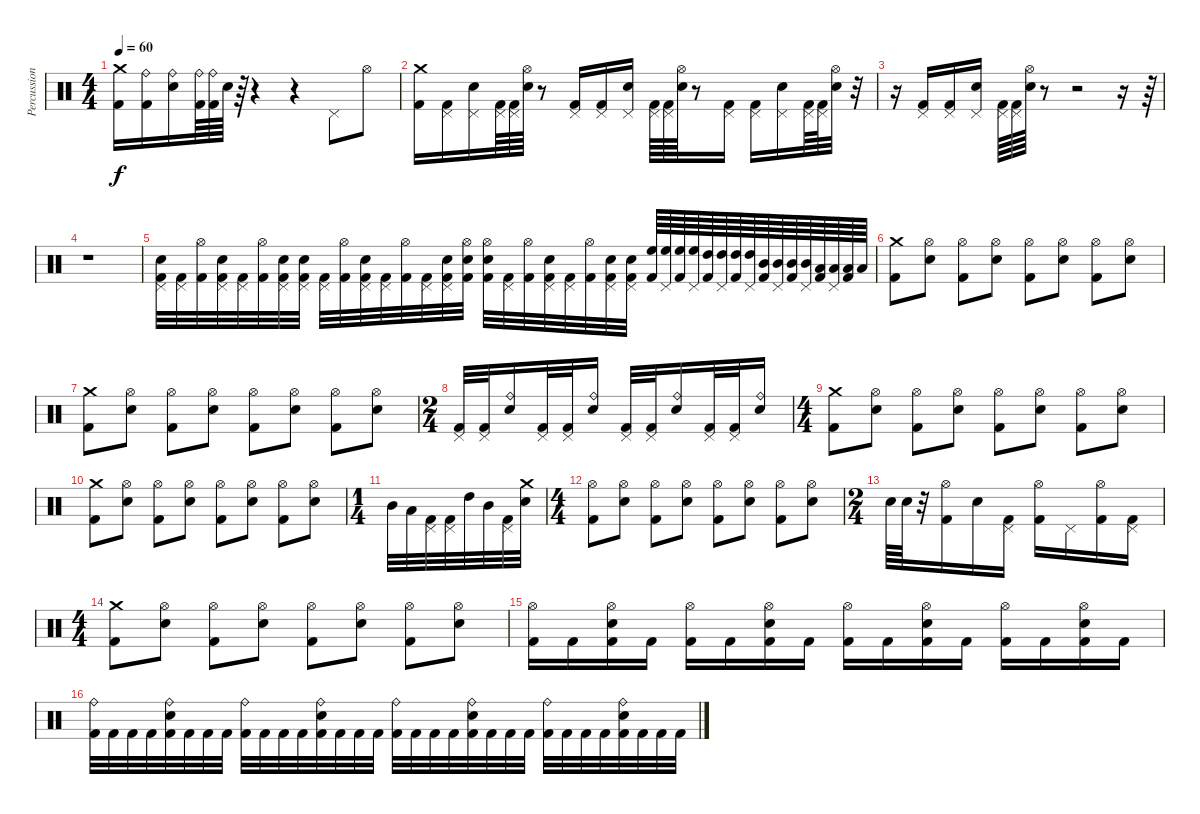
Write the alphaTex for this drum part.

\track ("Percussions" "Percussion") {instrument percussion}
\staff {score}
\articulation defaults
\ts (4 4)
\tempo 60
\clef neutral
\ks c
("Crash medium (hit)" "Kick (hit) 2").16{dy f} ("Ride (bell)" "Kick (hit) 2").16 ("Ride (bell)" "Electric Snare (hit)").16 ("Ride (bell)" "Kick (hit) 2").64 ("Ride (bell)" "Kick (hit) 2").64 "Electric Snare (hit)".64 r.64 r.4 r.4 "Pedal Hi-Hat (hit)".8 "Hi-Hat (open)".8 |
("Crash medium (hit)" "Kick (hit) 2").16 ("Pedal Hi-Hat (hit)" "Kick (hit) 2").16 ("Pedal Hi-Hat (hit)" "Electric Snare (hit)").16 ("Pedal Hi-Hat (hit)" "Kick (hit) 2").64 ("Pedal Hi-Hat (hit)" "Kick (hit) 2").64 ("Hi-Hat (open)" "Electric Snare (hit)").64 r.8 ("Pedal Hi-Hat (hit)" "Kick (hit) 2").16 ("Pedal Hi-Hat (hit)" "Kick (hit) 2").16 ("Pedal Hi-Hat (hit)" "Electric Snare (hit)").16 ("Pedal Hi-Hat (hit)" "Kick (hit) 2").64 ("Pedal Hi-Hat (hit)" "Kick (hit) 2").64 ("Hi-Hat (open)" "Electric Snare (hit)").64 r.8 ("Pedal Hi-Hat (hit)" "Kick (hit) 2").16 ("Pedal Hi-Hat (hit)" "Kick (hit) 2").16 ("Pedal Hi-Hat (hit)" "Electric Snare (hit)").16 ("Pedal Hi-Hat (hit)" "Kick (hit) 2").64 ("Pedal Hi-Hat (hit)" "Kick (hit) 2").64 ("Hi-Hat (open)" "Electric Snare (hit)").32 r.32 |
r.16 ("Pedal Hi-Hat (hit)" "Kick (hit) 2").16 ("Pedal Hi-Hat (hit)" "Kick (hit) 2").16 ("Pedal Hi-Hat (hit)" "Electric Snare (hit)").16 ("Pedal Hi-Hat (hit)" "Kick (hit) 2").64 ("Pedal Hi-Hat (hit)" "Kick (hit) 2").64 ("Hi-Hat (open)" "Electric Snare (hit)").64 r.8 r.2 r.16 r.64 |
r.1 |
("Pedal Hi-Hat (hit)" "Electric Snare (hit)" "Kick (hit) 2").32 ("Pedal Hi-Hat (hit)" "Kick (hit) 2").32 ("Hi-Hat (open)" "Kick (hit) 2").32 ("Pedal Hi-Hat (hit)" "Electric Snare (hit)" "Kick (hit) 2").32 ("Pedal Hi-Hat (hit)" "Kick (hit) 2").32 ("Hi-Hat (open)" "Kick (hit) 2").32 ("Pedal Hi-Hat (hit)" "Electric Snare (hit)" "Kick (hit) 2").32 ("Pedal Hi-Hat (hit)" "Electric Snare (hit)" "Kick (hit) 2").32 ("Pedal Hi-Hat (hit)" "Kick (hit) 2").32 ("Hi-Hat (open)" "Kick (hit) 2").32 ("Pedal Hi-Hat (hit)" "Electric Snare (hit)" "Kick (hit) 2").32 ("Pedal Hi-Hat (hit)" "Kick (hit) 2").32 ("Hi-Hat (open)" "Kick (hit) 2").32 ("Pedal Hi-Hat (hit)" "Kick (hit) 2").32 ("Pedal Hi-Hat (hit)" "Electric Snare (hit)" "Kick (hit) 2").32 ("Hi-Hat (open)" "Electric Snare (hit)" "Kick (hit) 2").32 ("Hi-Hat (open)" "Electric Snare (hit)" "Kick (hit) 2").32 ("Pedal Hi-Hat (hit)" "Kick (hit) 2").32 ("Hi-Hat (open)" "Kick (hit) 2").32 ("Pedal Hi-Hat (hit)" "Electric Snare (hit)" "Kick (hit) 2").32 ("Pedal Hi-Hat (hit)" "Kick (hit) 2").32 ("Hi-Hat (open)" "Kick (hit) 2").32 ("Pedal Hi-Hat (hit)" "Electric Snare (hit)" "Kick (hit) 2").32 ("Pedal Hi-Hat (hit)" "Electric Snare (hit)" "Kick (hit) 2").32 ("High Floor Tom (hit)" "Kick (hit) 2").64 ("Pedal Hi-Hat (hit)" "High Floor Tom (hit)").64 ("High Floor Tom (hit)" "Kick (hit) 2").64 ("Pedal Hi-Hat (hit)" "High Floor Tom (hit)").64 ("High Tom (hit)" "Kick (hit) 2").64 ("Pedal Hi-Hat (hit)" "High Tom (hit)").64 ("High Tom (hit)" "Kick (hit) 2").64 ("Pedal Hi-Hat (hit)" "High Tom (hit)").64 ("Mid Tom (hit)" "Kick (hit) 2").64 ("Pedal Hi-Hat (hit)" "Mid Tom (hit)").64 ("Mid Tom (hit)" "Kick (hit) 2").64 ("Pedal Hi-Hat (hit)" "Mid Tom (hit)").64 ("Low Tom (hit)" "Kick (hit) 2").64 ("Pedal Hi-Hat (hit)" "Low Tom (hit)").64 ("Low Tom (hit)" "Kick (hit) 2").64 "Low Tom (hit)".64 |
("Crash medium (hit)" "Kick (hit) 2").8 ("Hi-Hat (open)" "Electric Snare (hit)").8 ("Hi-Hat (open)" "Kick (hit) 2").8 ("Hi-Hat (open)" "Electric Snare (hit)").8 ("Hi-Hat (open)" "Kick (hit) 2").8 ("Hi-Hat (open)" "Electric Snare (hit)").8 ("Hi-Hat (open)" "Kick (hit) 2").8 ("Hi-Hat (open)" "Electric Snare (hit)").8 |
("Crash medium (hit)" "Kick (hit) 2").8 ("Hi-Hat (open)" "Electric Snare (hit)").8 ("Hi-Hat (open)" "Kick (hit) 2").8 ("Hi-Hat (open)" "Electric Snare (hit)").8 ("Hi-Hat (open)" "Kick (hit) 2").8 ("Hi-Hat (open)" "Electric Snare (hit)").8 ("Hi-Hat (open)" "Kick (hit) 2").8 ("Hi-Hat (open)" "Electric Snare (hit)").8 |
\ts (2 4)
("Pedal Hi-Hat (hit)" "Kick (hit) 2").32 ("Pedal Hi-Hat (hit)" "Kick (hit) 2").32 ("Ride (bell)" "Electric Snare (hit)").16 ("Pedal Hi-Hat (hit)" "Kick (hit) 2").32 ("Pedal Hi-Hat (hit)" "Kick (hit) 2").32 ("Ride (bell)" "Electric Snare (hit)").16 ("Pedal Hi-Hat (hit)" "Kick (hit) 2").32 ("Pedal Hi-Hat (hit)" "Kick (hit) 2").32 ("Ride (bell)" "Electric Snare (hit)").16 ("Pedal Hi-Hat (hit)" "Kick (hit) 2").32 ("Pedal Hi-Hat (hit)" "Kick (hit) 2").32 ("Ride (bell)" "Electric Snare (hit)").16 |
\ts (4 4)
("Crash medium (hit)" "Kick (hit) 2").8 ("Hi-Hat (open)" "Electric Snare (hit)").8 ("Hi-Hat (open)" "Kick (hit) 2").8 ("Hi-Hat (open)" "Electric Snare (hit)").8 ("Hi-Hat (open)" "Kick (hit) 2").8 ("Hi-Hat (open)" "Electric Snare (hit)").8 ("Hi-Hat (open)" "Kick (hit) 2").8 ("Hi-Hat (open)" "Electric Snare (hit)").8 |
("Crash medium (hit)" "Kick (hit) 2").8 ("Hi-Hat (open)" "Electric Snare (hit)").8 ("Hi-Hat (open)" "Kick (hit) 2").8 ("Hi-Hat (open)" "Electric Snare (hit)").8 ("Hi-Hat (open)" "Kick (hit) 2").8 ("Hi-Hat (open)" "Electric Snare (hit)").8 ("Hi-Hat (open)" "Kick (hit) 2").8 ("Hi-Hat (open)" "Electric Snare (hit)").8 |
\ts (1 4)
"Mid Tom (hit)".32 "Low Tom (hit)".32 ("Pedal Hi-Hat (hit)" "Kick (hit) 2").32 ("Pedal Hi-Hat (hit)" "Kick (hit) 2").32 "High Tom (hit)".32 "Mid Tom (hit)".32 ("Pedal Hi-Hat (hit)" "Kick (hit) 2").32 ("Crash medium (hit)" "Electric Snare (hit)").32 |
\ts (4 4)
("Hi-Hat (open)" "Kick (hit) 2").8 ("Hi-Hat (open)" "Electric Snare (hit)").8 ("Hi-Hat (open)" "Kick (hit) 2").8 ("Hi-Hat (open)" "Electric Snare (hit)").8 ("Hi-Hat (open)" "Kick (hit) 2").8 ("Hi-Hat (open)" "Electric Snare (hit)").8 ("Hi-Hat (open)" "Kick (hit) 2").8 ("Hi-Hat (open)" "Electric Snare (hit)").8 |
\ts (2 4)
"Electric Snare (hit)".64 "Electric Snare (hit)".64 r.32 ("Hi-Hat (open)" "Kick (hit) 2").16 "Electric Snare (hit)".16 ("Pedal Hi-Hat (hit)" "Kick (hit) 2").16 ("Hi-Hat (open)" "Kick (hit) 2").16 "Pedal Hi-Hat (hit)".16 ("Hi-Hat (open)" "Kick (hit) 2").16 ("Pedal Hi-Hat (hit)" "Kick (hit) 2").16 |
\ts (4 4)
("Crash medium (hit)" "Kick (hit) 2").8 ("Hi-Hat (open)" "Electric Snare (hit)").8 ("Hi-Hat (open)" "Kick (hit) 2").8 ("Hi-Hat (open)" "Electric Snare (hit)").8 ("Hi-Hat (open)" "Kick (hit) 2").8 ("Hi-Hat (open)" "Electric Snare (hit)").8 ("Hi-Hat (open)" "Kick (hit) 2").8 ("Hi-Hat (open)" "Electric Snare (hit)").8 |
("Hi-Hat (open)" "Kick (hit) 2").16 "Kick (hit) 2".16 ("Hi-Hat (open)" "Electric Snare (hit)" "Kick (hit) 2").16 "Kick (hit) 2".16 ("Hi-Hat (open)" "Kick (hit) 2").16 "Kick (hit) 2".16 ("Hi-Hat (open)" "Electric Snare (hit)" "Kick (hit) 2").16 "Kick (hit) 2".16 ("Hi-Hat (open)" "Kick (hit) 2").16 "Kick (hit) 2".16 ("Hi-Hat (open)" "Electric Snare (hit)" "Kick (hit) 2").16 "Kick (hit) 2".16 ("Hi-Hat (open)" "Kick (hit) 2").16 "Kick (hit) 2".16 ("Hi-Hat (open)" "Electric Snare (hit)" "Kick (hit) 2").16 "Kick (hit) 2".16 |
("Ride (bell)" "Kick (hit) 2").32 "Kick (hit) 2".32 "Kick (hit) 2".32 "Kick (hit) 2".32 ("Ride (bell)" "Electric Snare (hit)" "Kick (hit) 2").32 "Kick (hit) 2".32 "Kick (hit) 2".32 "Kick (hit) 2".32 ("Ride (bell)" "Kick (hit) 2").32 "Kick (hit) 2".32 "Kick (hit) 2".32 "Kick (hit) 2".32 ("Ride (bell)" "Electric Snare (hit)" "Kick (hit) 2").32 "Kick (hit) 2".32 "Kick (hit) 2".32 "Kick (hit) 2".32 ("Ride (bell)" "Kick (hit) 2").32 "Kick (hit) 2".32 "Kick (hit) 2".32 "Kick (hit) 2".32 ("Ride (bell)" "Electric Snare (hit)" "Kick (hit) 2").32 "Kick (hit) 2".32 "Kick (hit) 2".32 "Kick (hit) 2".32 ("Ride (bell)" "Kick (hit) 2").32 "Kick (hit) 2".32 "Kick (hit) 2".32 "Kick (hit) 2".32 ("Ride (bell)" "Electric Snare (hit)" "Kick (hit) 2").32 "Kick (hit) 2".32 "Kick (hit) 2".32 "Kick (hit) 2".32
